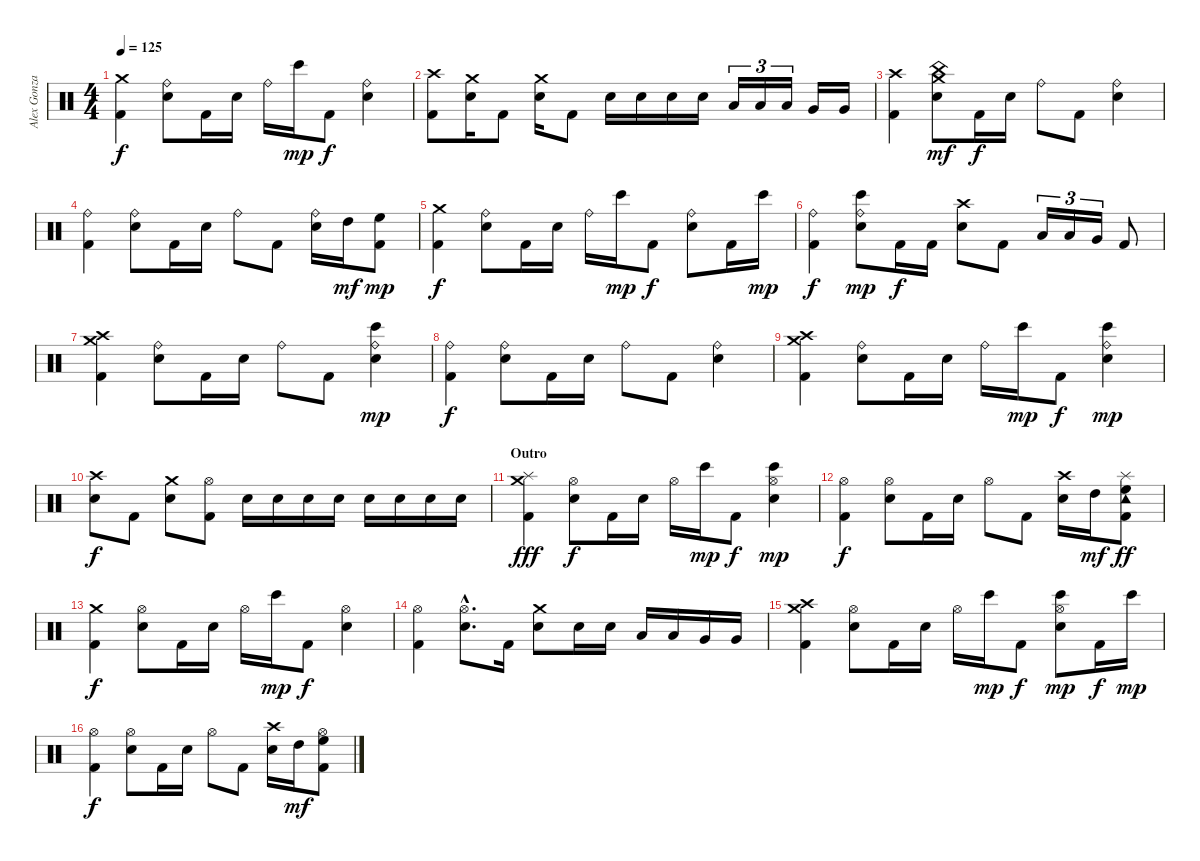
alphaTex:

\track ("Alex Gonzales" "Alex Gonza") {instrument percussion}
\staff {score}
\articulation defaults
\ts (4 4)
\tempo 125
\clef neutral
\ks c
("Crash medium (hit)" "Kick (hit) 2").4{dy f} ("Ride (bell)" "Electric Snare (hit)").8 "Kick (hit) 2".16 "Electric Snare (hit)".16 "Ride (bell)".16 "Bongo High (hit)".16{dy mp} "Kick (hit) 2".8{dy f} ("Ride (bell)" "Electric Snare (hit)").4 |
("Crash high (hit)" "Kick (hit) 2").8 ("Crash medium (hit)" "Electric Snare (hit)").16 "Kick (hit) 2".8 ("Crash medium (hit)" "Electric Snare (hit)").16 "Kick (hit) 2".8 "Electric Snare (hit)".16 "Electric Snare (hit)".16 "Electric Snare (hit)".16 "Electric Snare (hit)".16 "Low Tom (hit)".16{tu (3 2)} "Low Tom (hit)".16{tu (3 2)} "Low Tom (hit)".16{tu (3 2)} "Very Low Tom (hit)".16 "Very Low Tom (hit)".16 |
("Crash high (hit)" "Kick (hit) 2").4 ("Crash medium (hit)" "Electric Snare (hit)" "China (hit)").8{dy mf} "Kick (hit) 2".16{dy f} "Electric Snare (hit)".16 "Ride (bell)".8 "Kick (hit) 2".8 ("Ride (bell)" "Electric Snare (hit)").4 |
("Ride (bell)" "Kick (hit) 2").4 ("Ride (bell)" "Electric Snare (hit)").8 "Kick (hit) 2".16 "Electric Snare (hit)".16 "Ride (bell)".8 "Kick (hit) 2".8 ("Ride (bell)" "Electric Snare (hit)").16 "High Tom (hit)".16{dy mf} ("High Floor Tom (hit)" "Kick (hit) 2").8{dy mp} |
("Crash medium (hit)" "Kick (hit) 2").4{dy f} ("Ride (bell)" "Electric Snare (hit)").8 "Kick (hit) 2".16 "Electric Snare (hit)".16 "Ride (bell)".16 "Bongo High (hit)".16{dy mp} "Kick (hit) 2".8{dy f} ("Ride (bell)" "Electric Snare (hit)").8 "Kick (hit) 2".16 "Bongo High (hit)".16{dy mp} |
("Ride (bell)" "Kick (hit) 2").4{dy f} ("Ride (bell)" "Electric Snare (hit)" "Bongo High (hit)").8{dy mp} "Kick (hit) 2".16{dy f} "Kick (hit) 2".16 ("Crash high (hit)" "Electric Snare (hit)").8 "Kick (hit) 2".8 "Low Tom (hit)".16{tu (3 2)} "Low Tom (hit)".16{tu (3 2)} "Very Low Tom (hit)".16{tu (3 2)} "Kick (hit) 2".8 |
("Crash medium (hit)" "Crash high (hit)" "Kick (hit) 2").4 ("Ride (bell)" "Electric Snare (hit)").8 "Kick (hit) 2".16 "Electric Snare (hit)".16 "Ride (bell)".8 "Kick (hit) 2".8 ("Ride (bell)" "Electric Snare (hit)" "Bongo High (hit)").4{dy mp} |
("Ride (bell)" "Kick (hit) 2").4{dy f} ("Ride (bell)" "Electric Snare (hit)").8 "Kick (hit) 2".16 "Electric Snare (hit)".16 "Ride (bell)".8 "Kick (hit) 2".8 ("Ride (bell)" "Electric Snare (hit)").4 |
("Crash medium (hit)" "Crash high (hit)" "Kick (hit) 2").4 ("Ride (bell)" "Electric Snare (hit)").8 "Kick (hit) 2".16 "Electric Snare (hit)".16 "Ride (bell)".16 "Bongo High (hit)".16{dy mp} "Kick (hit) 2".8{dy f} ("Ride (bell)" "Electric Snare (hit)" "Bongo High (hit)").4{dy mp} |
("Crash high (hit)" "Electric Snare (hit)").8{dy f} "Kick (hit) 2".8 ("Crash medium (hit)" "Electric Snare (hit)").8 ("Hi-Hat (open)" "Kick (hit) 2").8 "Electric Snare (hit)".16 "Electric Snare (hit)".16 "Electric Snare (hit)".16 "Electric Snare (hit)".16 "Electric Snare (hit)".16 "Electric Snare (hit)".16 "Electric Snare (hit)".16 "Electric Snare (hit)".16 |
\section ("" "Outro")
("Crash medium (hit)" "Splash (hit)" "Kick (hit) 2").4{dy fff} ("Hi-Hat (open)" "Electric Snare (hit)").8{dy f} "Kick (hit) 2".16 "Electric Snare (hit)".16 "Hi-Hat (open)".16 "Bongo High (hit)".16{dy mp} "Kick (hit) 2".8{dy f} ("Hi-Hat (open)" "Electric Snare (hit)" "Bongo High (hit)").4{dy mp} |
("Hi-Hat (open)" "Kick (hit) 2").4{dy f} ("Hi-Hat (open)" "Electric Snare (hit)").8 "Kick (hit) 2".16 "Electric Snare (hit)".16 "Hi-Hat (open)".8 "Kick (hit) 2".8 ("Crash high (hit)" "Electric Snare (hit)").16 "High Tom (hit)".16{dy mf} ("High Floor Tom (hit)" "Splash (hit)" "Tambourine (hit)" "Kick (hit) 2").8{dy ff} |
("Crash medium (hit)" "Kick (hit) 2").4{dy f} ("Hi-Hat (open)" "Electric Snare (hit)").8 "Kick (hit) 2".16 "Electric Snare (hit)".16 "Hi-Hat (open)".16 "Bongo High (hit)".16{dy mp} "Kick (hit) 2".8{dy f} ("Hi-Hat (open)" "Electric Snare (hit)").4 |
("Hi-Hat (open)" "Kick (hit) 2").4 ("Hi-Hat (open)"{hac} "Electric Snare (hit)"{hac}).8{d} "Kick (hit) 2".16 ("Crash medium (hit)" "Electric Snare (hit)").8 "Electric Snare (hit)".16 "Electric Snare (hit)".16 "Low Tom (hit)".16 "Low Tom (hit)".16 "Very Low Tom (hit)".16 "Very Low Tom (hit)".16 |
("Crash medium (hit)" "Crash high (hit)" "Kick (hit) 2").4 ("Hi-Hat (open)" "Electric Snare (hit)").8 "Kick (hit) 2".16 "Electric Snare (hit)".16 "Hi-Hat (open)".16 "Bongo High (hit)".16{dy mp} "Kick (hit) 2".8{dy f} ("Hi-Hat (open)" "Electric Snare (hit)" "Bongo High (hit)").8{dy mp} "Kick (hit) 2".16{dy f} "Bongo High (hit)".16{dy mp} |
("Hi-Hat (open)" "Kick (hit) 2").4{dy f} ("Hi-Hat (open)" "Electric Snare (hit)").8 "Kick (hit) 2".16 "Electric Snare (hit)".16 "Hi-Hat (open)".8 "Kick (hit) 2".8 ("Crash high (hit)" "Electric Snare (hit)").16 "High Tom (hit)".16{dy mf} ("High Floor Tom (hit)" "Hi-Hat (open)" "Kick (hit) 2").8
